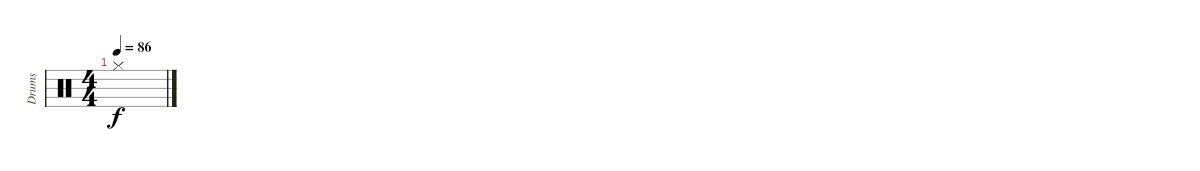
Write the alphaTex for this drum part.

\track ("Drums" "Drums") {instrument percussion}
\staff {score}
\articulation defaults
\ts (4 4)
\tempo 86
\clef neutral
\ks c "Hi-Hat (closed)".1{dy f}
